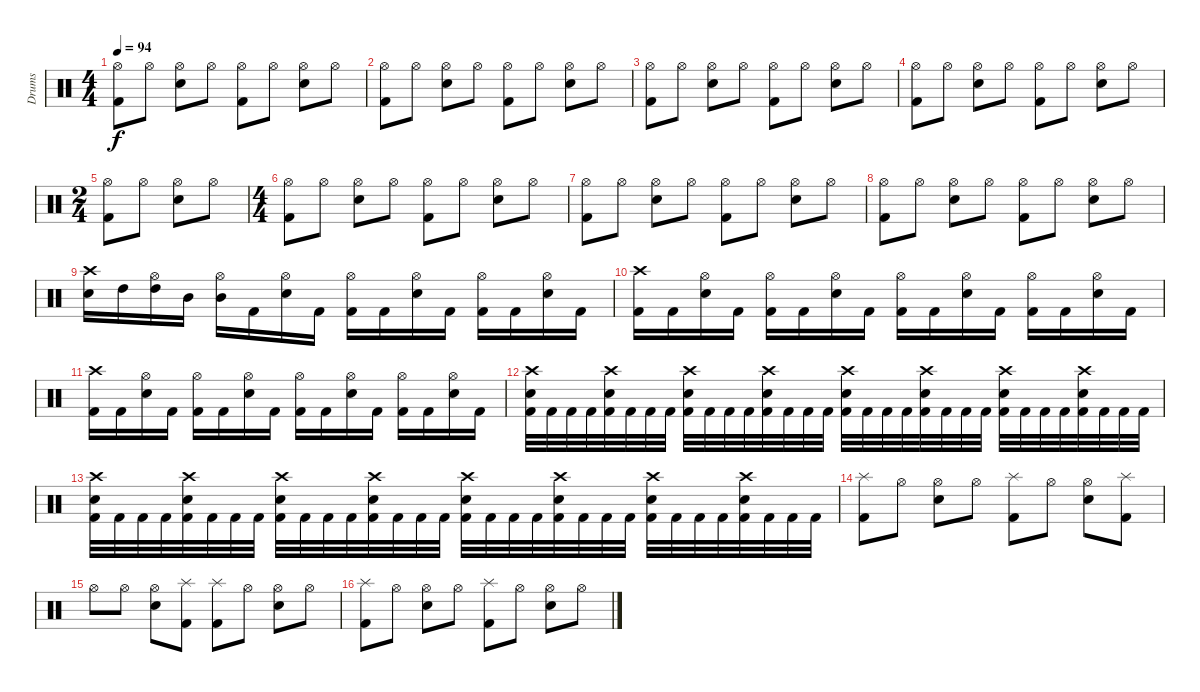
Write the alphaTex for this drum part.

\track ("Drums" "Drums") {instrument percussion}
\staff {score}
\articulation defaults
\ts (4 4)
\tempo 94
\clef neutral
\ks c
("Hi-Hat (open)" "Kick (hit) 2").8{dy f} "Hi-Hat (open)".8 ("Hi-Hat (open)" "Electric Snare (hit)").8 "Hi-Hat (open)".8 ("Hi-Hat (open)" "Kick (hit) 2").8 "Hi-Hat (open)".8 ("Hi-Hat (open)" "Electric Snare (hit)").8 "Hi-Hat (open)".8 |
("Hi-Hat (open)" "Kick (hit) 2").8 "Hi-Hat (open)".8 ("Hi-Hat (open)" "Electric Snare (hit)").8 "Hi-Hat (open)".8 ("Hi-Hat (open)" "Kick (hit) 2").8 "Hi-Hat (open)".8 ("Hi-Hat (open)" "Electric Snare (hit)").8 "Hi-Hat (open)".8 |
("Hi-Hat (open)" "Kick (hit) 2").8 "Hi-Hat (open)".8 ("Hi-Hat (open)" "Electric Snare (hit)").8 "Hi-Hat (open)".8 ("Hi-Hat (open)" "Kick (hit) 2").8 "Hi-Hat (open)".8 ("Hi-Hat (open)" "Electric Snare (hit)").8 "Hi-Hat (open)".8 |
("Hi-Hat (open)" "Kick (hit) 2").8 "Hi-Hat (open)".8 ("Hi-Hat (open)" "Electric Snare (hit)").8 "Hi-Hat (open)".8 ("Hi-Hat (open)" "Kick (hit) 2").8 "Hi-Hat (open)".8 ("Hi-Hat (open)" "Electric Snare (hit)").8 "Hi-Hat (open)".8 |
\ts (2 4)
("Hi-Hat (open)" "Kick (hit) 2").8 "Hi-Hat (open)".8 ("Hi-Hat (open)" "Electric Snare (hit)").8 "Hi-Hat (open)".8 |
\ts (4 4)
("Hi-Hat (open)" "Kick (hit) 2").8 "Hi-Hat (open)".8 ("Hi-Hat (open)" "Electric Snare (hit)").8 "Hi-Hat (open)".8 ("Hi-Hat (open)" "Kick (hit) 2").8 "Hi-Hat (open)".8 ("Hi-Hat (open)" "Electric Snare (hit)").8 "Hi-Hat (open)".8 |
("Hi-Hat (open)" "Kick (hit) 2").8 "Hi-Hat (open)".8 ("Hi-Hat (open)" "Electric Snare (hit)").8 "Hi-Hat (open)".8 ("Hi-Hat (open)" "Kick (hit) 2").8 "Hi-Hat (open)".8 ("Hi-Hat (open)" "Electric Snare (hit)").8 "Hi-Hat (open)".8 |
("Hi-Hat (open)" "Kick (hit) 2").8 "Hi-Hat (open)".8 ("Hi-Hat (open)" "Electric Snare (hit)").8 "Hi-Hat (open)".8 ("Hi-Hat (open)" "Kick (hit) 2").8 "Hi-Hat (open)".8 ("Hi-Hat (open)" "Electric Snare (hit)").8 "Hi-Hat (open)".8 |
("Crash high (hit)" "Electric Snare (hit)").16 "High Tom (hit)".16 ("Hi-Hat (open)" "High Tom (hit)").16 "Mid Tom (hit)".16 ("Hi-Hat (open)" "Mid Tom (hit)").16 "Kick (hit) 2".16 ("Hi-Hat (open)" "Electric Snare (hit)").16 "Kick (hit) 2".16 ("Hi-Hat (open)" "Kick (hit) 2").16 "Kick (hit) 2".16 ("Hi-Hat (open)" "Electric Snare (hit)").16 "Kick (hit) 2".16 ("Hi-Hat (open)" "Kick (hit) 2").16 "Kick (hit) 2".16 ("Hi-Hat (open)" "Electric Snare (hit)").16 "Kick (hit) 2".16 |
("Crash high (hit)" "Kick (hit) 2").16 "Kick (hit) 2".16 ("Hi-Hat (open)" "Electric Snare (hit)").16 "Kick (hit) 2".16 ("Hi-Hat (open)" "Kick (hit) 2").16 "Kick (hit) 2".16 ("Hi-Hat (open)" "Electric Snare (hit)").16 "Kick (hit) 2".16 ("Hi-Hat (open)" "Kick (hit) 2").16 "Kick (hit) 2".16 ("Hi-Hat (open)" "Electric Snare (hit)").16 "Kick (hit) 2".16 ("Hi-Hat (open)" "Kick (hit) 2").16 "Kick (hit) 2".16 ("Hi-Hat (open)" "Electric Snare (hit)").16 "Kick (hit) 2".16 |
("Crash high (hit)" "Kick (hit) 2").16 "Kick (hit) 2".16 ("Hi-Hat (open)" "Electric Snare (hit)").16 "Kick (hit) 2".16 ("Hi-Hat (open)" "Kick (hit) 2").16 "Kick (hit) 2".16 ("Hi-Hat (open)" "Electric Snare (hit)").16 "Kick (hit) 2".16 ("Hi-Hat (open)" "Kick (hit) 2").16 "Kick (hit) 2".16 ("Hi-Hat (open)" "Electric Snare (hit)").16 "Kick (hit) 2".16 ("Hi-Hat (open)" "Kick (hit) 2").16 "Kick (hit) 2".16 ("Hi-Hat (open)" "Electric Snare (hit)").16 "Kick (hit) 2".16 |
("Crash high (hit)" "Electric Snare (hit)" "Kick (hit) 2").32 "Kick (hit) 2".32 "Kick (hit) 2".32 "Kick (hit) 2".32 ("Crash high (hit)" "Electric Snare (hit)" "Kick (hit) 2").32 "Kick (hit) 2".32 "Kick (hit) 2".32 "Kick (hit) 2".32 ("Crash high (hit)" "Electric Snare (hit)" "Kick (hit) 2").32 "Kick (hit) 2".32 "Kick (hit) 2".32 "Kick (hit) 2".32 ("Crash high (hit)" "Electric Snare (hit)" "Kick (hit) 2").32 "Kick (hit) 2".32 "Kick (hit) 2".32 "Kick (hit) 2".32 ("Crash high (hit)" "Electric Snare (hit)" "Kick (hit) 2").32 "Kick (hit) 2".32 "Kick (hit) 2".32 "Kick (hit) 2".32 ("Crash high (hit)" "Electric Snare (hit)" "Kick (hit) 2").32 "Kick (hit) 2".32 "Kick (hit) 2".32 "Kick (hit) 2".32 ("Crash high (hit)" "Electric Snare (hit)" "Kick (hit) 2").32 "Kick (hit) 2".32 "Kick (hit) 2".32 "Kick (hit) 2".32 ("Crash high (hit)" "Electric Snare (hit)" "Kick (hit) 2").32 "Kick (hit) 2".32 "Kick (hit) 2".32 "Kick (hit) 2".32 |
("Crash high (hit)" "Electric Snare (hit)" "Kick (hit) 2").32 "Kick (hit) 2".32 "Kick (hit) 2".32 "Kick (hit) 2".32 ("Crash high (hit)" "Electric Snare (hit)" "Kick (hit) 2").32 "Kick (hit) 2".32 "Kick (hit) 2".32 "Kick (hit) 2".32 ("Crash high (hit)" "Electric Snare (hit)" "Kick (hit) 2").32 "Kick (hit) 2".32 "Kick (hit) 2".32 "Kick (hit) 2".32 ("Crash high (hit)" "Electric Snare (hit)" "Kick (hit) 2").32 "Kick (hit) 2".32 "Kick (hit) 2".32 "Kick (hit) 2".32 ("Crash high (hit)" "Electric Snare (hit)" "Kick (hit) 2").32 "Kick (hit) 2".32 "Kick (hit) 2".32 "Kick (hit) 2".32 ("Crash high (hit)" "Electric Snare (hit)" "Kick (hit) 2").32 "Kick (hit) 2".32 "Kick (hit) 2".32 "Kick (hit) 2".32 ("Crash high (hit)" "Electric Snare (hit)" "Kick (hit) 2").32 "Kick (hit) 2".32 "Kick (hit) 2".32 "Kick (hit) 2".32 ("Crash high (hit)" "Electric Snare (hit)" "Kick (hit) 2").32 "Kick (hit) 2".32 "Kick (hit) 2".32 "Kick (hit) 2".32 |
("Splash (hit)" "Kick (hit) 2").8 "Hi-Hat (open)".8 ("Hi-Hat (open)" "Electric Snare (hit)").8 "Hi-Hat (open)".8 ("Splash (hit)" "Kick (hit) 2").8 "Hi-Hat (open)".8 ("Hi-Hat (open)" "Electric Snare (hit)").8 ("Splash (hit)" "Kick (hit) 2").8 |
"Hi-Hat (open)".8 "Hi-Hat (open)".8 ("Hi-Hat (open)" "Electric Snare (hit)").8 ("Splash (hit)" "Kick (hit) 2").8 ("Splash (hit)" "Kick (hit) 2").8 "Hi-Hat (open)".8 ("Hi-Hat (open)" "Electric Snare (hit)").8 "Hi-Hat (open)".8 |
("Splash (hit)" "Kick (hit) 2").8 "Hi-Hat (open)".8 ("Hi-Hat (open)" "Electric Snare (hit)").8 "Hi-Hat (open)".8 ("Splash (hit)" "Kick (hit) 2").8 "Hi-Hat (open)".8 ("Hi-Hat (open)" "Electric Snare (hit)").8 "Hi-Hat (open)".8
